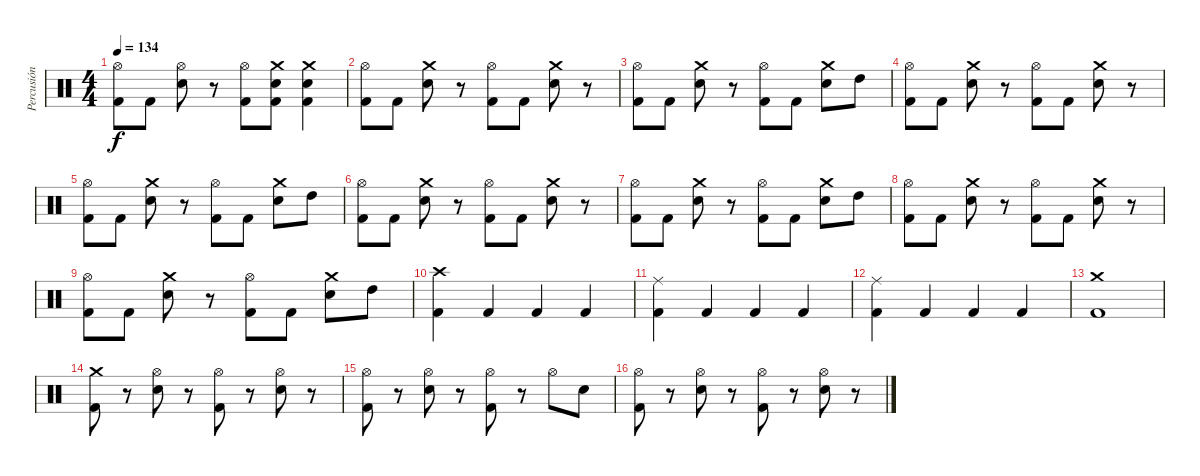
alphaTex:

\track ("Percusión" "Percusión") {instrument percussion}
\staff {score}
\articulation defaults
\ts (4 4)
\tempo 134
\clef neutral
\ks c
("Hi-Hat (open)" "Kick (hit) 2").8{dy f} "Kick (hit) 2".8 ("Hi-Hat (open)" "Snare (hit) 2").8 r.8 ("Hi-Hat (open)" "Kick (hit) 2").8 ("Crash medium (hit)" "Snare (hit) 2" "Kick (hit) 2").8 ("Crash medium (hit)" "Snare (hit) 2" "Kick (hit) 2").4 |
("Hi-Hat (open)" "Kick (hit) 2").8 "Kick (hit) 2".8 ("Crash medium (hit)" "Snare (hit) 2").8 r.8 ("Hi-Hat (open)" "Kick (hit) 2").8 "Kick (hit) 2".8 ("Crash medium (hit)" "Snare (hit) 2").8 r.8 |
("Hi-Hat (open)" "Kick (hit) 2").8 "Kick (hit) 2".8 ("Crash medium (hit)" "Snare (hit) 2").8 r.8 ("Hi-Hat (open)" "Kick (hit) 2").8 "Kick (hit) 2".8 ("Crash medium (hit)" "Snare (hit) 2").8 "High Tom (hit)".8 |
("Hi-Hat (open)" "Kick (hit) 2").8 "Kick (hit) 2".8 ("Crash medium (hit)" "Snare (hit) 2").8 r.8 ("Hi-Hat (open)" "Kick (hit) 2").8 "Kick (hit) 2".8 ("Crash medium (hit)" "Snare (hit) 2").8 r.8 |
("Hi-Hat (open)" "Kick (hit) 2").8 "Kick (hit) 2".8 ("Crash medium (hit)" "Snare (hit) 2").8 r.8 ("Hi-Hat (open)" "Kick (hit) 2").8 "Kick (hit) 2".8 ("Crash medium (hit)" "Snare (hit) 2").8 "High Tom (hit)".8 |
("Hi-Hat (open)" "Kick (hit) 2").8 "Kick (hit) 2".8 ("Crash medium (hit)" "Snare (hit) 2").8 r.8 ("Hi-Hat (open)" "Kick (hit) 2").8 "Kick (hit) 2".8 ("Crash medium (hit)" "Snare (hit) 2").8 r.8 |
("Hi-Hat (open)" "Kick (hit) 2").8 "Kick (hit) 2".8 ("Crash medium (hit)" "Snare (hit) 2").8 r.8 ("Hi-Hat (open)" "Kick (hit) 2").8 "Kick (hit) 2".8 ("Crash medium (hit)" "Snare (hit) 2").8 "High Tom (hit)".8 |
("Hi-Hat (open)" "Kick (hit) 2").8 "Kick (hit) 2".8 ("Crash medium (hit)" "Snare (hit) 2").8 r.8 ("Hi-Hat (open)" "Kick (hit) 2").8 "Kick (hit) 2".8 ("Crash medium (hit)" "Snare (hit) 2").8 r.8 |
("Hi-Hat (open)" "Kick (hit) 2").8 "Kick (hit) 2".8 ("Crash medium (hit)" "Snare (hit) 2").8 r.8 ("Hi-Hat (open)" "Kick (hit) 2").8 "Kick (hit) 2".8 ("Crash medium (hit)" "Snare (hit) 2").8 "High Tom (hit)".8 |
("Crash high (hit)" "Kick (hit) 2").4 "Kick (hit) 2".4 "Kick (hit) 2".4 "Kick (hit) 2".4 |
("Ride (middle)" "Kick (hit) 2").4 "Kick (hit) 2".4 "Kick (hit) 2".4 "Kick (hit) 2".4 |
("Ride (middle)" "Kick (hit) 2").4 "Kick (hit) 2".4 "Kick (hit) 2".4 "Kick (hit) 2".4 |
("Crash medium (hit)" "Kick (hit) 2").1 |
("Crash medium (hit)" "Kick (hit) 2").8 r.8 ("Hi-Hat (open)" "Snare (hit) 2").8 r.8 ("Hi-Hat (open)" "Kick (hit) 2").8 r.8 ("Hi-Hat (open)" "Snare (hit) 2").8 r.8 |
("Hi-Hat (open)" "Kick (hit) 2").8 r.8 ("Hi-Hat (open)" "Snare (hit) 2").8 r.8 ("Hi-Hat (open)" "Kick (hit) 2").8 r.8 "Hi-Hat (open)".8 "Snare (hit) 2".8 |
("Hi-Hat (open)" "Kick (hit) 2").8 r.8 ("Hi-Hat (open)" "Snare (hit) 2").8 r.8 ("Hi-Hat (open)" "Kick (hit) 2").8 r.8 ("Hi-Hat (open)" "Snare (hit) 2").8 r.8
